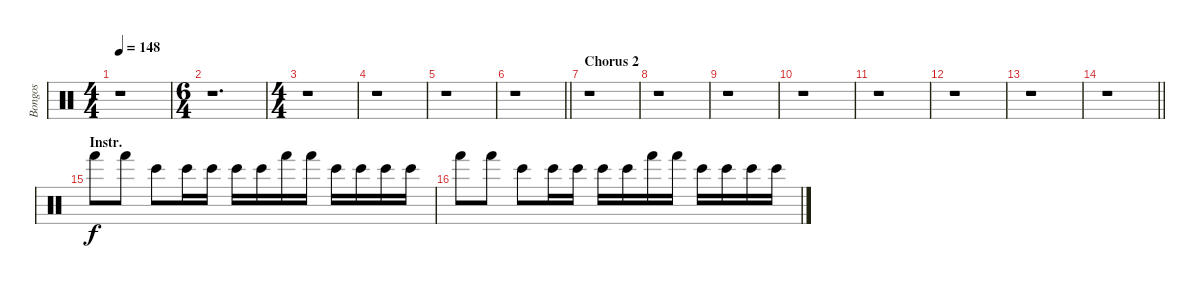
\track ("Bongos" "Bongos") {instrument percussion}
\staff
\articulation defaults
\ts (4 4)
\tempo 148
\clef neutral
\ks c
r.1{dy f} |
\ts (6 4)
r.1{d} |
\ts (4 4)
r.1 |
r.1 |
r.1 |
\barLineRight lightlight
r.1 |
\section ("" "Chorus 2")
r.1 |
r.1 |
r.1 |
r.1 |
r.1 |
r.1 |
r.1 |
\barLineRight lightlight
r.1 |
\section ("" "Instr.")
"Hand (hit)".8 "Hand (hit)".8 "Bongo High (hit)".8 "Bongo High (hit)".16 "Bongo High (hit)".16 "Bongo High (hit)".16 "Bongo High (hit)".16 "Hand (hit)".16 "Hand (hit)".16 "Bongo High (hit)".16 "Bongo High (hit)".16 "Bongo High (hit)".16 "Bongo High (hit)".16 |
"Hand (hit)".8 "Hand (hit)".8 "Bongo High (hit)".8 "Bongo High (hit)".16 "Bongo High (hit)".16 "Bongo High (hit)".16 "Bongo High (hit)".16 "Hand (hit)".16 "Hand (hit)".16 "Bongo High (hit)".16 "Bongo High (hit)".16 "Bongo High (hit)".16 "Bongo High (hit)".16
